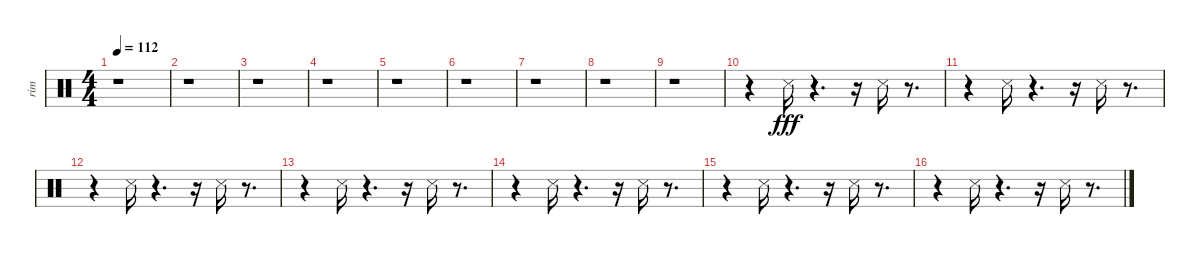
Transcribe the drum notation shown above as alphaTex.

\track ("rim" "rim") {instrument percussion}
\staff {score}
\articulation defaults
\ts (4 4)
\tempo 112
\clef neutral
\ks c
r.1{dy fff} |
r.1 |
r.1 |
r.1 |
r.1 |
r.1 |
r.1 |
r.1 |
r.1 |
r.4 "Snare (side stick) 3".16 r.4{d} r.16 "Snare (side stick) 3".16 r.8{d} |
r.4 "Snare (side stick) 3".16 r.4{d} r.16 "Snare (side stick) 3".16 r.8{d} |
r.4 "Snare (side stick) 3".16 r.4{d} r.16 "Snare (side stick) 3".16 r.8{d} |
r.4 "Snare (side stick) 3".16 r.4{d} r.16 "Snare (side stick) 3".16 r.8{d} |
r.4 "Snare (side stick) 3".16 r.4{d} r.16 "Snare (side stick) 3".16 r.8{d} |
r.4 "Snare (side stick) 3".16 r.4{d} r.16 "Snare (side stick) 3".16 r.8{d} |
r.4 "Snare (side stick) 3".16 r.4{d} r.16 "Snare (side stick) 3".16 r.8{d}
